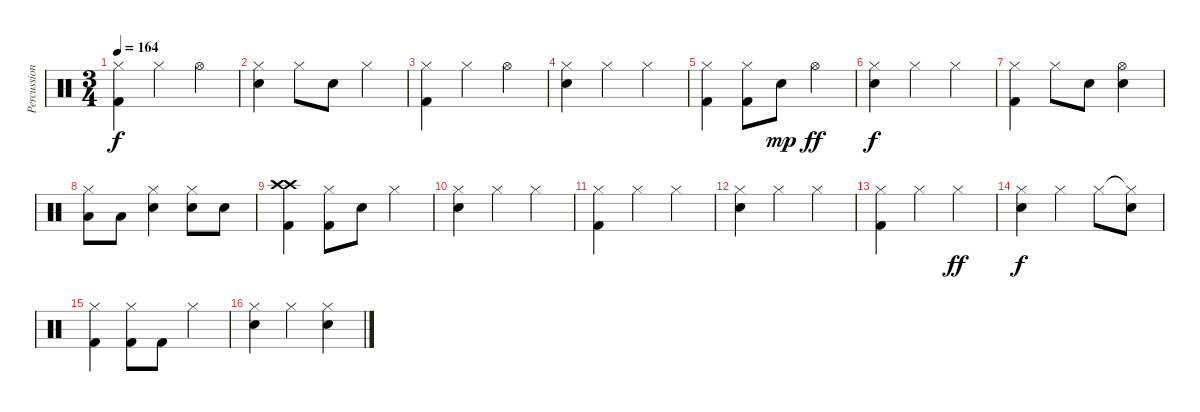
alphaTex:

\track ("Percussion" "Percussion") {instrument percussion}
\staff {score}
\articulation defaults
\ts (3 4)
\tempo 164
\clef neutral
\ks c
("Hi-Hat (closed)" "Kick (hit) 2").4{dy f} "Hi-Hat (closed)".4 "Hi-Hat (open)".4 |
("Hi-Hat (closed)" "Snare (hit) 2").4 "Hi-Hat (closed)".8 "Snare (hit) 2".8 "Hi-Hat (closed)".4 |
("Hi-Hat (closed)" "Kick (hit) 2").4 "Hi-Hat (closed)".4 "Hi-Hat (open)".4 |
("Hi-Hat (closed)" "Snare (hit) 2").4 "Hi-Hat (closed)".4 "Hi-Hat (closed)".4 |
("Hi-Hat (closed)" "Kick (hit) 2").4 ("Hi-Hat (closed)" "Kick (hit) 2").8 "Snare (hit) 2".8{dy mp} "Hi-Hat (open)".4{dy ff} |
("Hi-Hat (closed)" "Snare (hit) 2").4{dy f} "Hi-Hat (closed)".4 "Hi-Hat (closed)".4 |
("Hi-Hat (closed)" "Kick (hit) 2").4 "Hi-Hat (closed)".8 "Snare (hit) 2".8 ("Hi-Hat (open)" "Snare (hit) 2").4 |
("Hi-Hat (closed)" "Low Tom (hit)").8 "Low Tom (hit)".8 ("Hi-Hat (closed)" "Snare (hit) 2").4 ("Hi-Hat (closed)" "Snare (hit) 2").8 "Snare (hit) 2".8 |
("Crash high (hit)" "Crash high (hit)" "Kick (hit) 2").4 ("Hi-Hat (closed)" "Kick (hit) 2").8 "Snare (hit) 2".8 "Hi-Hat (closed)".4 |
("Hi-Hat (closed)" "Snare (hit) 2").4 "Hi-Hat (closed)".4 "Hi-Hat (closed)".4 |
("Hi-Hat (closed)" "Kick (hit) 2").4 "Hi-Hat (closed)".4 "Hi-Hat (closed)".4 |
("Hi-Hat (closed)" "Snare (hit) 2").4 "Hi-Hat (closed)".4 "Hi-Hat (closed)".4 |
("Hi-Hat (closed)" "Kick (hit) 2").4 "Hi-Hat (closed)".4 "Hi-Hat (closed)".4{dy ff} |
("Hi-Hat (closed)" "Snare (hit) 2").4{dy f} "Hi-Hat (closed)".4 "Hi-Hat (closed)".8 ("Hi-Hat (closed)"{t} "Snare (hit) 2").8 |
("Hi-Hat (closed)" "Kick (hit) 2").4 ("Hi-Hat (closed)" "Kick (hit) 2").8 "Kick (hit) 2".8 "Hi-Hat (closed)".4 |
("Hi-Hat (closed)" "Snare (hit) 2").4 "Hi-Hat (closed)".4 ("Hi-Hat (closed)" "Snare (hit) 2").4
